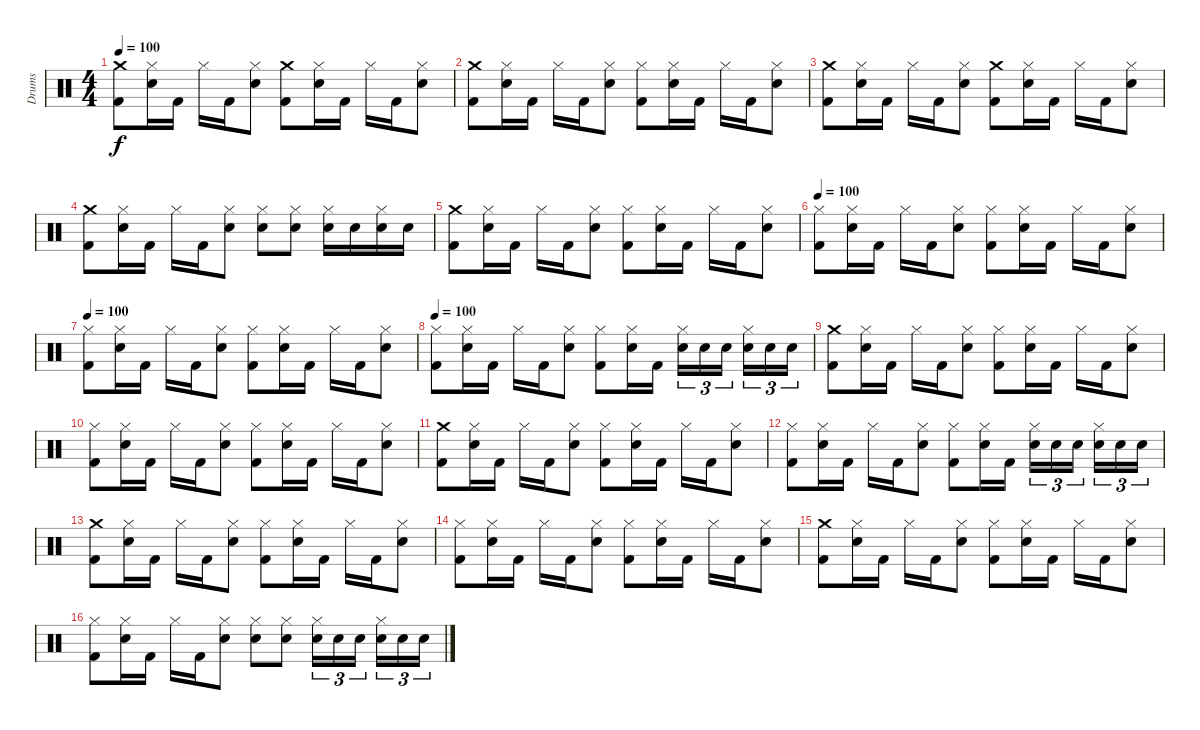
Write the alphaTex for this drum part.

\track ("Drums" "Drums") {instrument percussion}
\staff {score}
\articulation defaults
\ts (4 4)
\tempo 100
\clef neutral
\ks c
("Crash medium (hit)" "Kick (hit) 2").8{dy f} ("Hi-Hat (closed)" "Snare (hit) 2").16 "Kick (hit) 2".16 "Hi-Hat (closed)".16 "Kick (hit) 2".16 ("Hi-Hat (closed)" "Snare (hit) 2").8 ("Crash medium (hit)" "Kick (hit) 2").8 ("Hi-Hat (closed)" "Snare (hit) 2").16 "Kick (hit) 2".16 "Hi-Hat (closed)".16 "Kick (hit) 2".16 ("Hi-Hat (closed)" "Snare (hit) 2").8 |
("Crash medium (hit)" "Kick (hit) 2").8 ("Hi-Hat (closed)" "Snare (hit) 2").16 "Kick (hit) 2".16 "Hi-Hat (closed)".16 "Kick (hit) 2".16 ("Hi-Hat (closed)" "Snare (hit) 2").8 ("Hi-Hat (closed)" "Kick (hit) 2").8 ("Hi-Hat (closed)" "Snare (hit) 2").16 "Kick (hit) 2".16 "Hi-Hat (closed)".16 "Kick (hit) 2".16 ("Hi-Hat (closed)" "Snare (hit) 2").8 |
("Crash medium (hit)" "Kick (hit) 2").8 ("Hi-Hat (closed)" "Snare (hit) 2").16 "Kick (hit) 2".16 "Hi-Hat (closed)".16 "Kick (hit) 2".16 ("Hi-Hat (closed)" "Snare (hit) 2").8 ("Crash medium (hit)" "Kick (hit) 2").8 ("Hi-Hat (closed)" "Snare (hit) 2").16 "Kick (hit) 2".16 "Hi-Hat (closed)".16 "Kick (hit) 2".16 ("Hi-Hat (closed)" "Snare (hit) 2").8 |
("Crash medium (hit)" "Kick (hit) 2").8 ("Hi-Hat (closed)" "Snare (hit) 2").16 "Kick (hit) 2".16 "Hi-Hat (closed)".16 "Kick (hit) 2".16 ("Hi-Hat (closed)" "Snare (hit) 2").8 ("Hi-Hat (closed)" "Snare (hit) 2").8 ("Snare (hit) 2" "Hi-Hat (closed)").8 ("Snare (hit) 2" "Hi-Hat (closed)").16 "Snare (hit) 2".16 ("Snare (hit) 2" "Hi-Hat (closed)").16 "Snare (hit) 2".16 |
("Crash medium (hit)" "Kick (hit) 2").8 ("Hi-Hat (closed)" "Snare (hit) 2").16 "Kick (hit) 2".16 "Hi-Hat (closed)".16 "Kick (hit) 2".16 ("Hi-Hat (closed)" "Snare (hit) 2").8 ("Hi-Hat (closed)" "Kick (hit) 2").8 ("Hi-Hat (closed)" "Snare (hit) 2").16 "Kick (hit) 2".16 "Hi-Hat (closed)".16 "Kick (hit) 2".16 ("Hi-Hat (closed)" "Snare (hit) 2").8 |
\tempo 100
("Hi-Hat (closed)" "Kick (hit) 2").8 ("Hi-Hat (closed)" "Snare (hit) 2").16 "Kick (hit) 2".16 "Hi-Hat (closed)".16 "Kick (hit) 2".16 ("Hi-Hat (closed)" "Snare (hit) 2").8 ("Hi-Hat (closed)" "Kick (hit) 2").8 ("Hi-Hat (closed)" "Snare (hit) 2").16 "Kick (hit) 2".16 "Hi-Hat (closed)".16 "Kick (hit) 2".16 ("Hi-Hat (closed)" "Snare (hit) 2").8 |
\tempo 100
("Hi-Hat (closed)" "Kick (hit) 2").8 ("Hi-Hat (closed)" "Snare (hit) 2").16 "Kick (hit) 2".16 "Hi-Hat (closed)".16 "Kick (hit) 2".16 ("Hi-Hat (closed)" "Snare (hit) 2").8 ("Hi-Hat (closed)" "Kick (hit) 2").8 ("Hi-Hat (closed)" "Snare (hit) 2").16 "Kick (hit) 2".16 "Hi-Hat (closed)".16 "Kick (hit) 2".16 ("Hi-Hat (closed)" "Snare (hit) 2").8 |
\tempo 100
("Hi-Hat (closed)" "Kick (hit) 2").8 ("Hi-Hat (closed)" "Snare (hit) 2").16 "Kick (hit) 2".16 "Hi-Hat (closed)".16 "Kick (hit) 2".16 ("Hi-Hat (closed)" "Snare (hit) 2").8 ("Hi-Hat (closed)" "Kick (hit) 2").8 ("Hi-Hat (closed)" "Snare (hit) 2").16 "Kick (hit) 2".16 ("Snare (hit) 2" "Hi-Hat (closed)").16{tu (3 2)} "Snare (hit) 2".16{tu (3 2)} "Snare (hit) 2".16{tu (3 2)} ("Snare (hit) 2" "Hi-Hat (closed)").16{tu (3 2)} "Snare (hit) 2".16{tu (3 2)} "Snare (hit) 2".16{tu (3 2)} |
("Crash medium (hit)" "Kick (hit) 2").8 ("Hi-Hat (closed)" "Snare (hit) 2").16 "Kick (hit) 2".16 "Hi-Hat (closed)".16 "Kick (hit) 2".16 ("Hi-Hat (closed)" "Snare (hit) 2").8 ("Hi-Hat (closed)" "Kick (hit) 2").8 ("Hi-Hat (closed)" "Snare (hit) 2").16 "Kick (hit) 2".16 "Hi-Hat (closed)".16 "Kick (hit) 2".16 ("Hi-Hat (closed)" "Snare (hit) 2").8 |
("Hi-Hat (closed)" "Kick (hit) 2").8 ("Hi-Hat (closed)" "Snare (hit) 2").16 "Kick (hit) 2".16 "Hi-Hat (closed)".16 "Kick (hit) 2".16 ("Hi-Hat (closed)" "Snare (hit) 2").8 ("Hi-Hat (closed)" "Kick (hit) 2").8 ("Hi-Hat (closed)" "Snare (hit) 2").16 "Kick (hit) 2".16 "Hi-Hat (closed)".16 "Kick (hit) 2".16 ("Hi-Hat (closed)" "Snare (hit) 2").8 |
("Crash medium (hit)" "Kick (hit) 2").8 ("Hi-Hat (closed)" "Snare (hit) 2").16 "Kick (hit) 2".16 "Hi-Hat (closed)".16 "Kick (hit) 2".16 ("Hi-Hat (closed)" "Snare (hit) 2").8 ("Hi-Hat (closed)" "Kick (hit) 2").8 ("Hi-Hat (closed)" "Snare (hit) 2").16 "Kick (hit) 2".16 "Hi-Hat (closed)".16 "Kick (hit) 2".16 ("Hi-Hat (closed)" "Snare (hit) 2").8 |
("Hi-Hat (closed)" "Kick (hit) 2").8 ("Hi-Hat (closed)" "Snare (hit) 2").16 "Kick (hit) 2".16 "Hi-Hat (closed)".16 "Kick (hit) 2".16 ("Hi-Hat (closed)" "Snare (hit) 2").8 ("Hi-Hat (closed)" "Kick (hit) 2").8 ("Hi-Hat (closed)" "Snare (hit) 2").16 "Kick (hit) 2".16 ("Snare (hit) 2" "Hi-Hat (closed)").16{tu (3 2)} "Snare (hit) 2".16{tu (3 2)} "Snare (hit) 2".16{tu (3 2)} ("Snare (hit) 2" "Hi-Hat (closed)").16{tu (3 2)} "Snare (hit) 2".16{tu (3 2)} "Snare (hit) 2".16{tu (3 2)} |
("Crash medium (hit)" "Kick (hit) 2").8 ("Hi-Hat (closed)" "Snare (hit) 2").16 "Kick (hit) 2".16 "Hi-Hat (closed)".16 "Kick (hit) 2".16 ("Hi-Hat (closed)" "Snare (hit) 2").8 ("Hi-Hat (closed)" "Kick (hit) 2").8 ("Hi-Hat (closed)" "Snare (hit) 2").16 "Kick (hit) 2".16 "Hi-Hat (closed)".16 "Kick (hit) 2".16 ("Hi-Hat (closed)" "Snare (hit) 2").8 |
("Hi-Hat (closed)" "Kick (hit) 2").8 ("Hi-Hat (closed)" "Snare (hit) 2").16 "Kick (hit) 2".16 "Hi-Hat (closed)".16 "Kick (hit) 2".16 ("Hi-Hat (closed)" "Snare (hit) 2").8 ("Hi-Hat (closed)" "Kick (hit) 2").8 ("Hi-Hat (closed)" "Snare (hit) 2").16 "Kick (hit) 2".16 "Hi-Hat (closed)".16 "Kick (hit) 2".16 ("Hi-Hat (closed)" "Snare (hit) 2").8 |
("Crash medium (hit)" "Kick (hit) 2").8 ("Hi-Hat (closed)" "Snare (hit) 2").16 "Kick (hit) 2".16 "Hi-Hat (closed)".16 "Kick (hit) 2".16 ("Hi-Hat (closed)" "Snare (hit) 2").8 ("Hi-Hat (closed)" "Kick (hit) 2").8 ("Hi-Hat (closed)" "Snare (hit) 2").16 "Kick (hit) 2".16 "Hi-Hat (closed)".16 "Kick (hit) 2".16 ("Hi-Hat (closed)" "Snare (hit) 2").8 |
("Hi-Hat (closed)" "Kick (hit) 2").8 ("Hi-Hat (closed)" "Snare (hit) 2").16 "Kick (hit) 2".16 "Hi-Hat (closed)".16 "Kick (hit) 2".16 ("Hi-Hat (closed)" "Snare (hit) 2").8 ("Hi-Hat (closed)" "Snare (hit) 2").8 ("Hi-Hat (closed)" "Snare (hit) 2").8 ("Snare (hit) 2" "Hi-Hat (closed)").16{tu (3 2)} "Snare (hit) 2".16{tu (3 2)} "Snare (hit) 2".16{tu (3 2)} ("Snare (hit) 2" "Hi-Hat (closed)").16{tu (3 2)} "Snare (hit) 2".16{tu (3 2)} "Snare (hit) 2".16{tu (3 2)}
